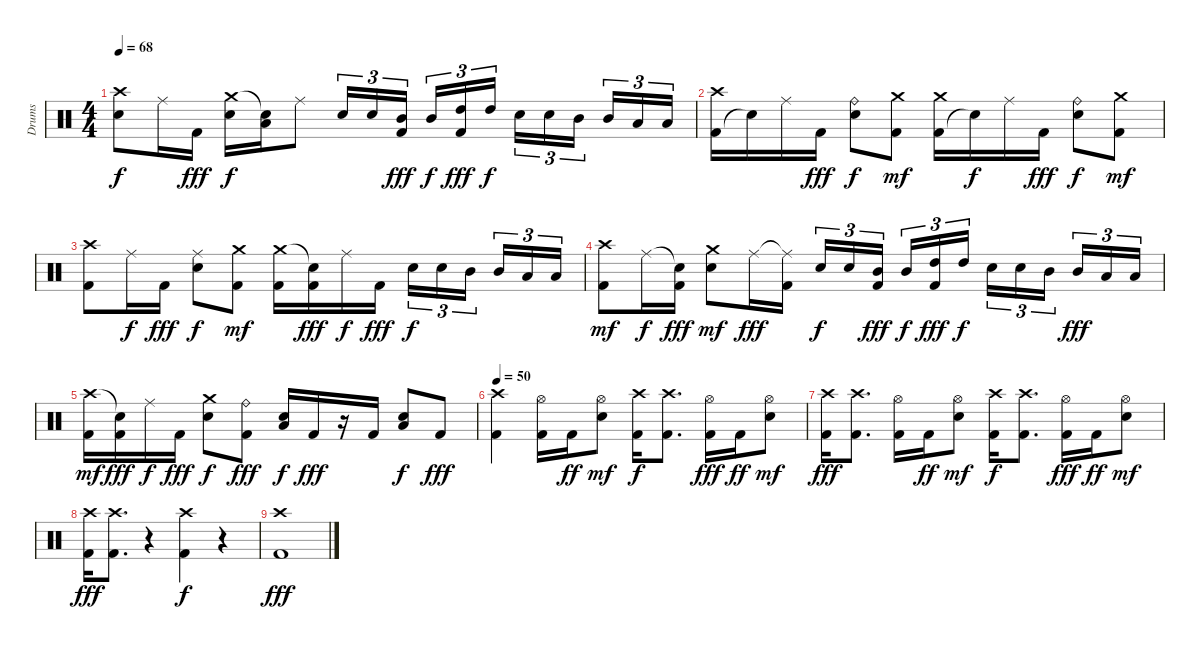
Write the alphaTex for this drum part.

\track ("Drums" "Drums") {instrument percussion}
\staff {score}
\articulation defaults
\ts (4 4)
\tempo 68
\clef neutral
\ks c
("Snare (hit) 2" "Crash high (hit)").8{dy f} "Ride (middle)".16 "Kick (hit) 2".16{dy fff} ("Snare (hit) 2" "Crash medium (hit)").16{dy f} ("Low Tom (hit)" "Snare (hit)"{t}).16 "Ride (middle)".8 "Snare (hit) 2".16{tu (3 2)} "Snare (hit) 2".16{tu (3 2)} ("Mid Tom (hit)" "Kick (hit) 2").16{tu (3 2) dy fff} "Mid Tom (hit)".16{tu (3 2) dy f} ("High Tom (hit)" "Kick (hit) 2").16{tu (3 2) dy fff} "High Tom (hit)".16{tu (3 2) dy f} "Snare (hit) 2".16{tu (3 2)} "Snare (hit) 2".16{tu (3 2)} "Mid Tom (hit)".16{tu (3 2)} "Mid Tom (hit)".16{tu (3 2)} "Low Tom (hit)".16{tu (3 2)} "Low Tom (hit)".16{tu (3 2)} |
("Kick (hit) 2" "Crash high (hit)").16 "Snare (hit)"{t}.16 "Ride (middle)".16 "Kick (hit) 2".16{dy fff} ("Ride (bell)" "Snare (hit) 2").8{dy f} ("Kick (hit) 2" "Crash medium (hit)").8{dy mf} ("Kick (hit) 2" "Crash medium (hit)").16 "Snare (hit)"{t}.16{dy f} "Ride (middle)".16 "Kick (hit) 2".16{dy fff} ("Ride (bell)" "Snare (hit) 2").8{dy f} ("Kick (hit) 2" "Crash medium (hit)").8{dy mf} |
("Kick (hit) 2" "Crash high (hit)").8 "Ride (middle)".16{dy f} "Kick (hit) 2".16{dy fff} ("Ride (middle)" "Snare (hit) 2").8{dy f} ("Kick (hit) 2" "Crash medium (hit)").8{dy mf} ("Kick (hit) 2" "Crash medium (hit)").16 ("Kick (hit) 2" "Snare (hit)"{t}).16{dy fff} "Ride (middle)".16{dy f} "Kick (hit) 2".16{dy fff} "Snare (hit) 2".16{tu (3 2) dy f} "Snare (hit) 2".16{tu (3 2)} "Mid Tom (hit)".16{tu (3 2)} "Mid Tom (hit)".16{tu (3 2)} "Low Tom (hit)".16{tu (3 2)} "Low Tom (hit)".16{tu (3 2)} |
("Kick (hit) 2" "Crash high (hit)").8{dy mf} "Ride (middle)".16{dy f} ("Snare (hit)"{t} "Kick (hit) 2").16{dy fff} ("Snare (hit) 2" "Crash medium (hit)").8{dy mf} "Ride (middle)".16{dy fff} ("Ride (middle)"{t} "Kick (hit) 2").16 "Snare (hit) 2".16{tu (3 2) dy f} "Snare (hit) 2".16{tu (3 2)} ("Mid Tom (hit)" "Kick (hit) 2").16{tu (3 2) dy fff} "Mid Tom (hit)".16{tu (3 2) dy f} ("High Tom (hit)" "Kick (hit) 2").16{tu (3 2) dy fff} "High Tom (hit)".16{tu (3 2) dy f} "Snare (hit) 2".16{tu (3 2)} "Snare (hit) 2".16{tu (3 2)} "Mid Tom (hit)".16{tu (3 2)} "Mid Tom (hit)".16{tu (3 2) dy fff} "Low Tom (hit)".16{tu (3 2)} "Low Tom (hit)".16{tu (3 2)} |
("Kick (hit) 2" "Crash high (hit)").16{dy mf} ("Kick (hit) 2" "Snare (hit)"{t}).16{dy fff} "Ride (middle)".16{dy f} "Kick (hit) 2".16{dy fff} ("Snare (hit) 2" "Crash medium (hit)").8{dy f} ("Ride (bell)" "Kick (hit) 2").8{dy fff} ("Snare (hit) 2" "Low Tom (hit)").16{dy f} "Kick (hit) 2".16{dy fff} r.16 "Kick (hit) 2".16 ("Snare (hit) 2" "Low Tom (hit)").8{dy f} "Kick (hit) 2".8{dy fff} |
\tempo 50
("Kick (hit) 2" "Crash high (hit)").4 ("Hi-Hat (open)" "Kick (hit) 2").16 "Kick (hit) 2".16{dy ff} ("Hi-Hat (open)" "Snare (hit) 2").8{dy mf} ("Kick (hit) 2" "Crash high (hit)").16{dy f} ("Kick (hit) 2" "Crash high (hit)").8{d} ("Hi-Hat (open)" "Kick (hit) 2").16{dy fff} "Kick (hit) 2".16{dy ff} ("Hi-Hat (open)" "Snare (hit) 2").8{dy mf} |
("Kick (hit) 2" "Crash high (hit)").16{dy fff} ("Kick (hit) 2" "Crash high (hit)").8{d} ("Hi-Hat (open)" "Kick (hit) 2").16 "Kick (hit) 2".16{dy ff} ("Hi-Hat (open)" "Snare (hit) 2").8{dy mf} ("Kick (hit) 2" "Crash high (hit)").16{dy f} ("Kick (hit) 2" "Crash high (hit)").8{d} ("Hi-Hat (open)" "Kick (hit) 2").16{dy fff} "Kick (hit) 2".16{dy ff} ("Hi-Hat (open)" "Snare (hit) 2").8{dy mf} |
("Kick (hit) 2" "Crash high (hit)").16{dy fff} ("Kick (hit) 2" "Crash high (hit)").8{d} r.4 ("Kick (hit) 2" "Crash high (hit)").4{dy f} r.4 |
("Kick (hit) 2" "Crash high (hit)").1{dy fff}
